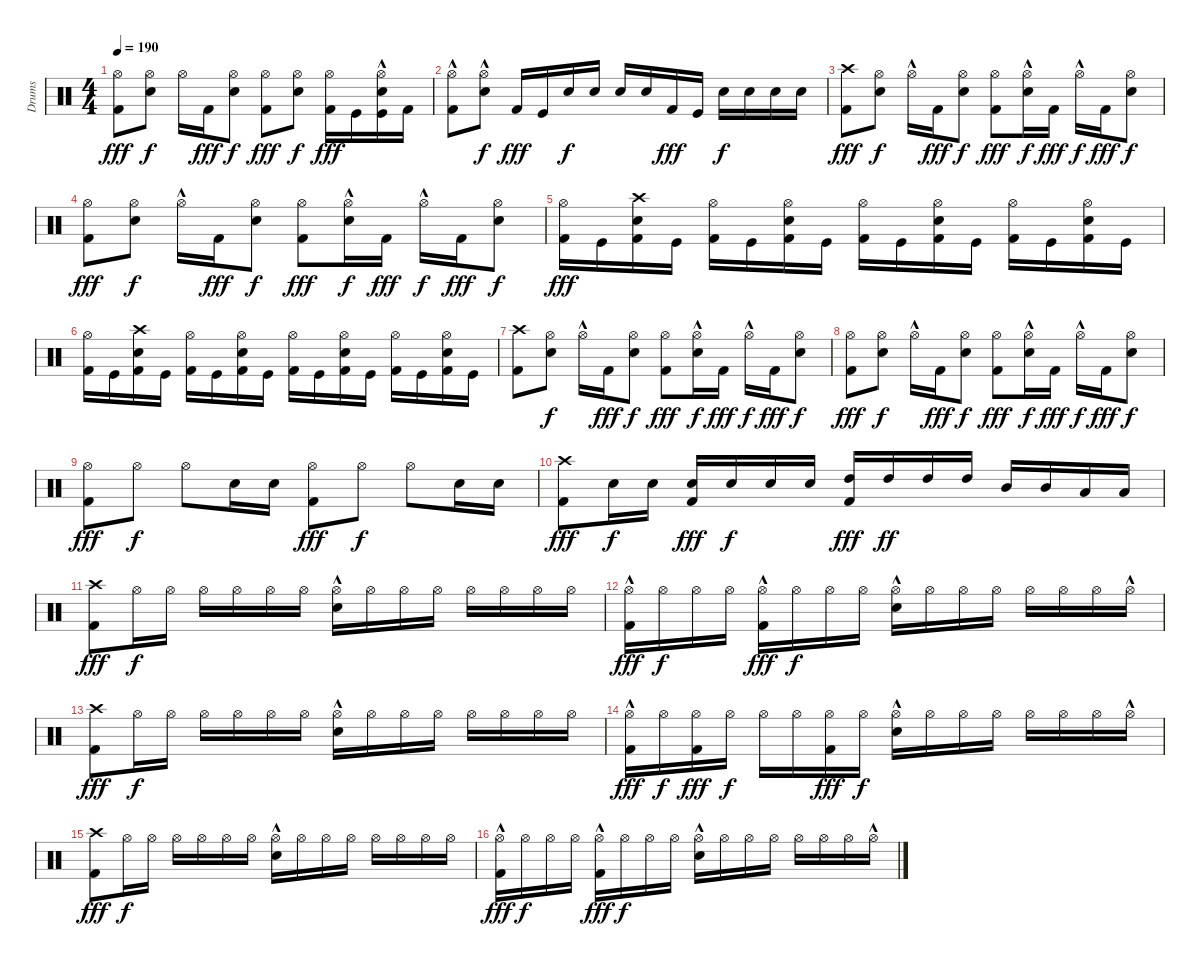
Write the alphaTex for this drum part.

\track ("Drums" "Drums") {instrument percussion}
\staff {score}
\articulation defaults
\ts (4 4)
\tempo 190
\clef neutral
\ks c
("Hi-Hat (open)" "Kick (hit) 2").8{dy fff} ("Hi-Hat (open)" "Electric Snare (hit)").8{dy f} "Hi-Hat (open)".16 "Kick (hit) 2".16{dy fff} ("Hi-Hat (open)" "Electric Snare (hit)").8{dy f} ("Hi-Hat (open)" "Kick (hit) 2").8{dy fff} ("Hi-Hat (open)" "Electric Snare (hit)").8{dy f} ("Hi-Hat (open)" "Kick (hit) 2").16{dy fff} "Kick (hit)".16 ("Hi-Hat (open)"{hac} "Electric Snare (hit)" "Kick (hit)").16 "Kick (hit) 2".16 |
("Hi-Hat (open)"{hac} "Kick (hit) 2").8 ("Hi-Hat (open)"{hac} "Electric Snare (hit)").8{dy f} "Kick (hit) 2".16{dy fff} "Kick (hit)".16 "Electric Snare (hit)".16{dy f} "Electric Snare (hit)".16 "Electric Snare (hit)".16 "Electric Snare (hit)".16 "Kick (hit) 2".16{dy fff} "Kick (hit)".16 "Electric Snare (hit)".16{dy f} "Electric Snare (hit)".16 "Electric Snare (hit)".16 "Electric Snare (hit)".16 |
("Crash high (hit)" "Kick (hit) 2").8{dy fff} ("Hi-Hat (open)" "Electric Snare (hit)").8{dy f} "Hi-Hat (open)"{hac}.16 "Kick (hit) 2".16{dy fff} ("Hi-Hat (open)" "Electric Snare (hit)").8{dy f} ("Hi-Hat (open)" "Kick (hit) 2").8{dy fff} ("Hi-Hat (open)"{hac} "Electric Snare (hit)").16{dy f} "Kick (hit) 2".16{dy fff} "Hi-Hat (open)"{hac}.16{dy f} "Kick (hit) 2".16{dy fff} ("Hi-Hat (open)" "Electric Snare (hit)").8{dy f} |
("Hi-Hat (open)" "Kick (hit) 2").8{dy fff} ("Hi-Hat (open)" "Electric Snare (hit)").8{dy f} "Hi-Hat (open)"{hac}.16 "Kick (hit) 2".16{dy fff} ("Hi-Hat (open)" "Electric Snare (hit)").8{dy f} ("Hi-Hat (open)" "Kick (hit) 2").8{dy fff} ("Hi-Hat (open)"{hac} "Electric Snare (hit)").16{dy f} "Kick (hit) 2".16{dy fff} "Hi-Hat (open)"{hac}.16{dy f} "Kick (hit) 2".16{dy fff} ("Hi-Hat (open)" "Electric Snare (hit)").8{dy f} |
("Hi-Hat (open)" "Kick (hit) 2").16{dy fff} "Kick (hit)".16 ("Crash high (hit)" "Electric Snare (hit)" "Kick (hit) 2").16 "Kick (hit)".16 ("Hi-Hat (open)" "Kick (hit) 2").16 "Kick (hit)".16 ("Hi-Hat (open)" "Electric Snare (hit)" "Kick (hit) 2").16 "Kick (hit)".16 ("Hi-Hat (open)" "Kick (hit) 2").16 "Kick (hit)".16 ("Hi-Hat (open)" "Electric Snare (hit)" "Kick (hit) 2").16 "Kick (hit)".16 ("Hi-Hat (open)" "Kick (hit) 2").16 "Kick (hit)".16 ("Hi-Hat (open)" "Electric Snare (hit)" "Kick (hit) 2").16 "Kick (hit)".16 |
("Hi-Hat (open)" "Kick (hit) 2").16 "Kick (hit)".16 ("Crash high (hit)" "Electric Snare (hit)" "Kick (hit) 2").16 "Kick (hit)".16 ("Hi-Hat (open)" "Kick (hit) 2").16 "Kick (hit)".16 ("Hi-Hat (open)" "Electric Snare (hit)" "Kick (hit) 2").16 "Kick (hit)".16 ("Hi-Hat (open)" "Kick (hit) 2").16 "Kick (hit)".16 ("Hi-Hat (open)" "Electric Snare (hit)" "Kick (hit) 2").16 "Kick (hit)".16 ("Hi-Hat (open)" "Kick (hit) 2").16 "Kick (hit)".16 ("Hi-Hat (open)" "Electric Snare (hit)" "Kick (hit) 2").16 "Kick (hit)".16 |
("Crash high (hit)" "Kick (hit) 2").8 ("Hi-Hat (open)" "Electric Snare (hit)").8{dy f} "Hi-Hat (open)"{hac}.16 "Kick (hit) 2".16{dy fff} ("Hi-Hat (open)" "Electric Snare (hit)").8{dy f} ("Hi-Hat (open)" "Kick (hit) 2").8{dy fff} ("Hi-Hat (open)"{hac} "Electric Snare (hit)").16{dy f} "Kick (hit) 2".16{dy fff} "Hi-Hat (open)"{hac}.16{dy f} "Kick (hit) 2".16{dy fff} ("Hi-Hat (open)" "Electric Snare (hit)").8{dy f} |
("Hi-Hat (open)" "Kick (hit) 2").8{dy fff} ("Hi-Hat (open)" "Electric Snare (hit)").8{dy f} "Hi-Hat (open)"{hac}.16 "Kick (hit) 2".16{dy fff} ("Hi-Hat (open)" "Electric Snare (hit)").8{dy f} ("Hi-Hat (open)" "Kick (hit) 2").8{dy fff} ("Hi-Hat (open)"{hac} "Electric Snare (hit)").16{dy f} "Kick (hit) 2".16{dy fff} "Hi-Hat (open)"{hac}.16{dy f} "Kick (hit) 2".16{dy fff} ("Hi-Hat (open)" "Electric Snare (hit)").8{dy f} |
("Hi-Hat (open)" "Kick (hit) 2").8{dy fff} "Hi-Hat (open)".8{dy f} "Hi-Hat (open)".8 "Electric Snare (hit)".16 "Electric Snare (hit)".16 ("Hi-Hat (open)" "Kick (hit) 2").8{dy fff} "Hi-Hat (open)".8{dy f} "Hi-Hat (open)".8 "Electric Snare (hit)".16 "Electric Snare (hit)".16 |
("Crash high (hit)" "Kick (hit) 2").8{dy fff} "Electric Snare (hit)".16{dy f} "Electric Snare (hit)".16 ("Electric Snare (hit)" "Kick (hit) 2").16{dy fff} "Electric Snare (hit)".16{dy f} "Electric Snare (hit)".16 "Electric Snare (hit)".16 ("High Tom (hit)" "Kick (hit) 2").16{dy fff} "High Tom (hit)".16{dy ff} "High Tom (hit)".16 "High Tom (hit)".16 "Mid Tom (hit)".16 "Mid Tom (hit)".16 "Low Tom (hit)".16 "Low Tom (hit)".16 |
("Crash high (hit)" "Kick (hit) 2").8{dy fff} "Hi-Hat (open)".16{dy f} "Hi-Hat (open)".16 "Hi-Hat (open)".16 "Hi-Hat (open)".16 "Hi-Hat (open)".16 "Hi-Hat (open)".16 ("Hi-Hat (open)"{hac} "Electric Snare (hit)").16 "Hi-Hat (open)".16 "Hi-Hat (open)".16 "Hi-Hat (open)".16 "Hi-Hat (open)".16 "Hi-Hat (open)".16 "Hi-Hat (open)".16 "Hi-Hat (open)".16 |
("Hi-Hat (open)"{hac} "Kick (hit) 2").16{dy fff} "Hi-Hat (open)".16{dy f} "Hi-Hat (open)".16 "Hi-Hat (open)".16 ("Hi-Hat (open)"{hac} "Kick (hit) 2").16{dy fff} "Hi-Hat (open)".16{dy f} "Hi-Hat (open)".16 "Hi-Hat (open)".16 ("Hi-Hat (open)"{hac} "Electric Snare (hit)").16 "Hi-Hat (open)".16 "Hi-Hat (open)".16 "Hi-Hat (open)".16 "Hi-Hat (open)".16 "Hi-Hat (open)".16 "Hi-Hat (open)".16 "Hi-Hat (open)"{hac}.16 |
("Crash high (hit)" "Kick (hit) 2").8{dy fff} "Hi-Hat (open)".16{dy f} "Hi-Hat (open)".16 "Hi-Hat (open)".16 "Hi-Hat (open)".16 "Hi-Hat (open)".16 "Hi-Hat (open)".16 ("Hi-Hat (open)"{hac} "Electric Snare (hit)").16 "Hi-Hat (open)".16 "Hi-Hat (open)".16 "Hi-Hat (open)".16 "Hi-Hat (open)".16 "Hi-Hat (open)".16 "Hi-Hat (open)".16 "Hi-Hat (open)".16 |
("Hi-Hat (open)"{hac} "Kick (hit) 2").16{dy fff} "Hi-Hat (open)".16{dy f} ("Hi-Hat (open)" "Kick (hit) 2").16{dy fff} "Hi-Hat (open)".16{dy f} "Hi-Hat (open)".16 "Hi-Hat (open)".16 ("Hi-Hat (open)" "Kick (hit) 2").16{dy fff} "Hi-Hat (open)".16{dy f} ("Hi-Hat (open)"{hac} "Electric Snare (hit)").16 "Hi-Hat (open)".16 "Hi-Hat (open)".16 "Hi-Hat (open)".16 "Hi-Hat (open)".16 "Hi-Hat (open)".16 "Hi-Hat (open)".16 "Hi-Hat (open)"{hac}.16 |
("Crash high (hit)" "Kick (hit) 2").8{dy fff} "Hi-Hat (open)".16{dy f} "Hi-Hat (open)".16 "Hi-Hat (open)".16 "Hi-Hat (open)".16 "Hi-Hat (open)".16 "Hi-Hat (open)".16 ("Hi-Hat (open)"{hac} "Electric Snare (hit)").16 "Hi-Hat (open)".16 "Hi-Hat (open)".16 "Hi-Hat (open)".16 "Hi-Hat (open)".16 "Hi-Hat (open)".16 "Hi-Hat (open)".16 "Hi-Hat (open)".16 |
("Hi-Hat (open)"{hac} "Kick (hit) 2").16{dy fff} "Hi-Hat (open)".16{dy f} "Hi-Hat (open)".16 "Hi-Hat (open)".16 ("Hi-Hat (open)"{hac} "Kick (hit) 2").16{dy fff} "Hi-Hat (open)".16{dy f} "Hi-Hat (open)".16 "Hi-Hat (open)".16 ("Hi-Hat (open)"{hac} "Electric Snare (hit)").16 "Hi-Hat (open)".16 "Hi-Hat (open)".16 "Hi-Hat (open)".16 "Hi-Hat (open)".16 "Hi-Hat (open)".16 "Hi-Hat (open)".16 "Hi-Hat (open)"{hac}.16
